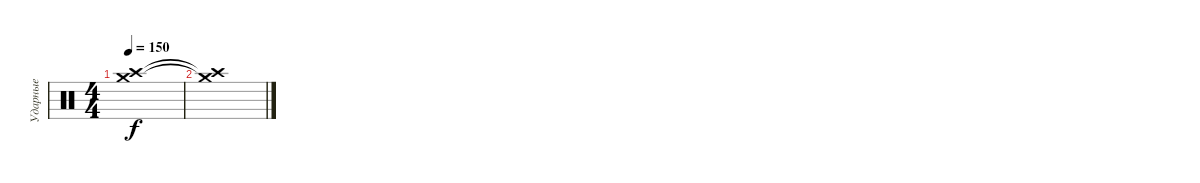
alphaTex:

\track ("Ударные" "Ударные") {instrument percussion}
\staff {score}
\articulation defaults
\ts (4 4)
\tempo 150
\clef neutral
\ks c
("Crash high (hit)" "Crash medium (hit)").1{dy f} |
("Crash high (hit)"{t} "Crash medium (hit)"{t}).1
